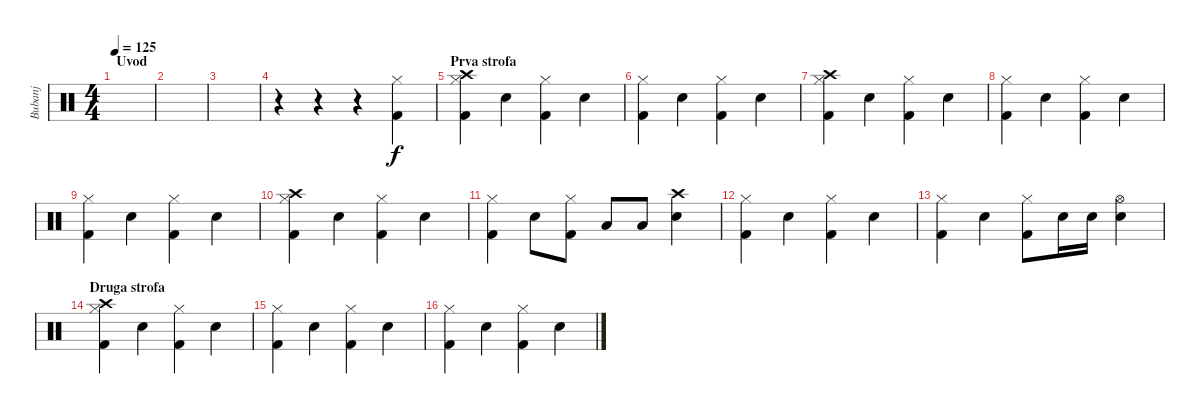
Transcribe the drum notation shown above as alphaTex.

\track ("Bubanj" "Bubanj") {instrument percussion}
\staff {score}
\articulation defaults
\ts (4 4)
\section ("" "Uvod")
\tempo 125
\clef neutral
\ks c
|
|
|
r.4 r.4 r.4 ("Hi-Hat (closed)" "Kick (hit) 2").4 |
\section ("" "Prva strofa")
("Crash high (hit)" "Hi-Hat (closed)" "Kick (hit) 2").4 "Electric Snare (hit)".4 ("Hi-Hat (closed)" "Kick (hit) 2").4 "Electric Snare (hit)".4 |
("Hi-Hat (closed)" "Kick (hit) 2").4 "Electric Snare (hit)".4 ("Hi-Hat (closed)" "Kick (hit) 2").4 "Electric Snare (hit)".4 |
("Crash high (hit)" "Hi-Hat (closed)" "Kick (hit) 2").4 "Electric Snare (hit)".4 ("Hi-Hat (closed)" "Kick (hit) 2").4 "Electric Snare (hit)".4 |
("Hi-Hat (closed)" "Kick (hit) 2").4 "Electric Snare (hit)".4 ("Hi-Hat (closed)" "Kick (hit) 2").4 "Electric Snare (hit)".4 |
("Hi-Hat (closed)" "Kick (hit) 2").4 "Electric Snare (hit)".4 ("Hi-Hat (closed)" "Kick (hit) 2").4 "Electric Snare (hit)".4 |
("Crash high (hit)" "Hi-Hat (closed)" "Kick (hit) 2").4 "Electric Snare (hit)".4 ("Hi-Hat (closed)" "Kick (hit) 2").4 "Electric Snare (hit)".4 |
("Hi-Hat (closed)" "Kick (hit) 2").4 "Electric Snare (hit)".8 ("Hi-Hat (closed)" "Kick (hit) 2").8 "Low Tom (hit)".8 "Low Floor Tom (hit)".8 ("Crash high (hit)" "Electric Snare (hit)").4 |
("Hi-Hat (closed)" "Kick (hit) 2").4 "Electric Snare (hit)".4 ("Hi-Hat (closed)" "Kick (hit) 2").4 "Electric Snare (hit)".4 |
("Hi-Hat (closed)" "Kick (hit) 2").4 "Electric Snare (hit)".4 ("Hi-Hat (closed)" "Kick (hit) 2").8 "Electric Snare (hit)".16 "Electric Snare (hit)".16 ("Hi-Hat (open)" "Electric Snare (hit)").4 |
\section ("" "Druga strofa")
("Crash high (hit)" "Hi-Hat (closed)" "Kick (hit) 2").4 "Electric Snare (hit)".4 ("Hi-Hat (closed)" "Kick (hit) 2").4 "Electric Snare (hit)".4 |
("Hi-Hat (closed)" "Kick (hit) 2").4 "Electric Snare (hit)".4 ("Hi-Hat (closed)" "Kick (hit) 2").4 "Electric Snare (hit)".4 |
("Hi-Hat (closed)" "Kick (hit) 2").4 "Electric Snare (hit)".4 ("Hi-Hat (closed)" "Kick (hit) 2").4 "Electric Snare (hit)".4
